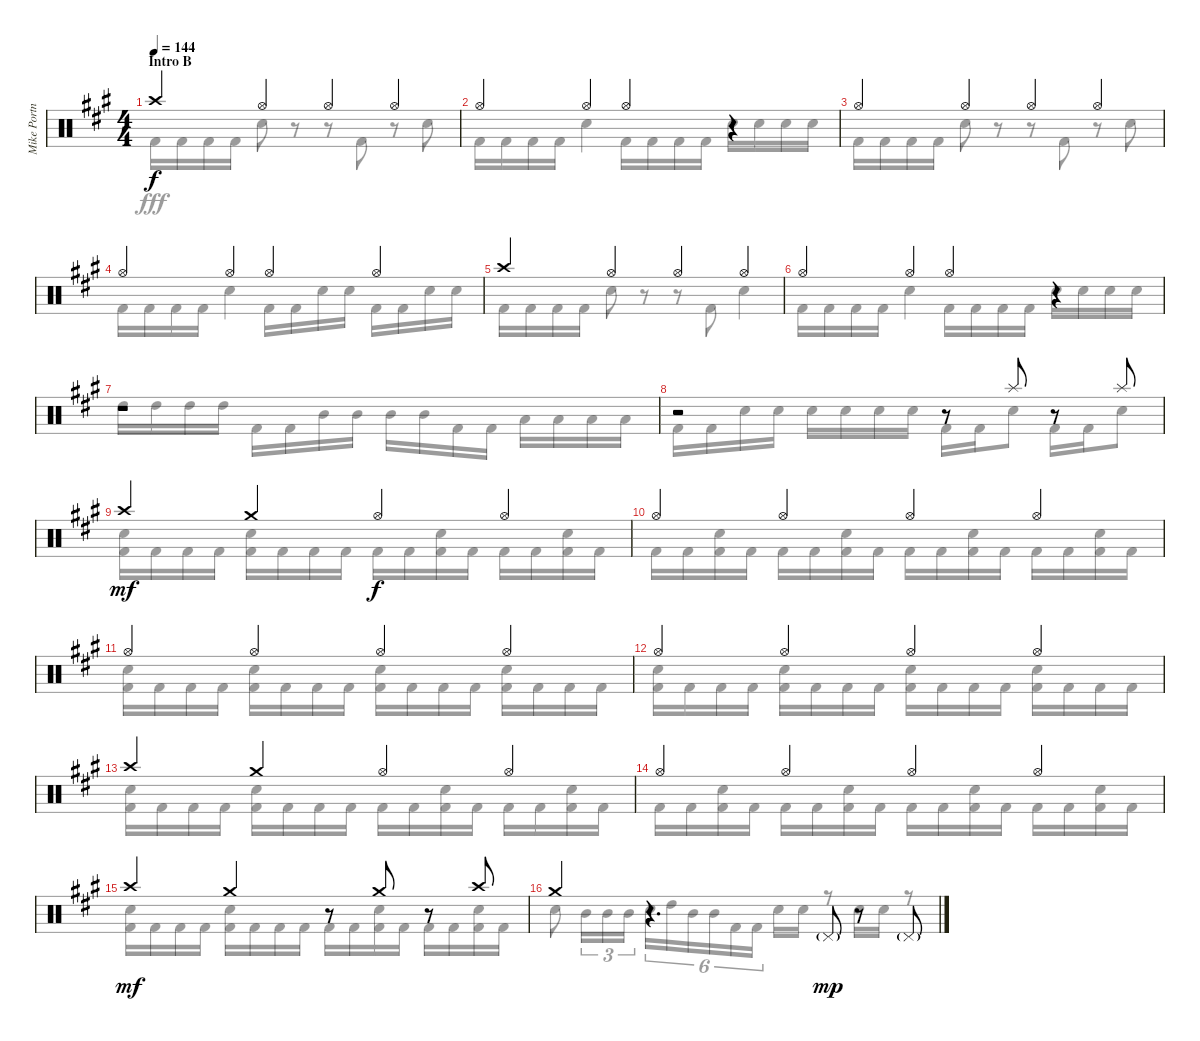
\track ("Mike Portnoy Drums" "Mike Portn") {instrument percussion}
\staff {score}
\articulation defaults
\voice
\ts (4 4)
\section ("" "Intro B")
\tempo 144
\clef neutral
\ks f#minor "Crash high (hit)".4{dy f} "Hi-Hat (open)".4 "Hi-Hat (open)".4 "Hi-Hat (open)".4
|
"Hi-Hat (open)".4 "Hi-Hat (open)".4 "Hi-Hat (open)".4 r.4 |
"Hi-Hat (open)".4 "Hi-Hat (open)".4 "Hi-Hat (open)".4 "Hi-Hat (open)".4 |
"Hi-Hat (open)".4 "Hi-Hat (open)".4 "Hi-Hat (open)".4 "Hi-Hat (open)".4 |
"Crash high (hit)".4 "Hi-Hat (open)".4 "Hi-Hat (open)".4 "Hi-Hat (open)".4 |
"Hi-Hat (open)".4 "Hi-Hat (open)".4 "Hi-Hat (open)".4 r.4 |
r.1 |
r.2 r.8 "Splash (hit)".8 r.8 "Splash (hit)".8 |
"Crash high (hit)".4{dy mf} "Crash medium (hit)".4 "Hi-Hat (open)".4{dy f} "Hi-Hat (open)".4 |
"Hi-Hat (open)".4 "Hi-Hat (open)".4 "Hi-Hat (open)".4 "Hi-Hat (open)".4 |
"Hi-Hat (open)".4 "Hi-Hat (open)".4 "Hi-Hat (open)".4 "Hi-Hat (open)".4 |
"Hi-Hat (open)".4 "Hi-Hat (open)".4 "Hi-Hat (open)".4 "Hi-Hat (open)".4 |
"Crash high (hit)".4 "Crash medium (hit)".4 "Hi-Hat (open)".4 "Hi-Hat (open)".4 |
"Hi-Hat (open)".4 "Hi-Hat (open)".4 "Hi-Hat (open)".4 "Hi-Hat (open)".4 |
"Crash high (hit)".4{dy mf} "Crash medium (hit)".4 r.8 "Crash medium (hit)".8 r.8 "Crash high (hit)".8 |
"Crash medium (hit)".4 r.4{d} "Pedal Hi-Hat (hit)"{g}.8{dy mp} r.8 "Pedal Hi-Hat (hit)"{g}.8
\voice
\clef neutral
\ottava regular
\simile none
\ks f#minor "Kick (hit) 2".16{dy fff} "Kick (hit) 2".16 "Kick (hit) 2".16 "Kick (hit) 2".16 "Snare (hit) 2".8
r.8 r.8 "Kick (hit) 2".8 r.8 "Snare (hit) 2".8 |
"Kick (hit) 2".16 "Kick (hit) 2".16 "Kick (hit) 2".16 "Kick (hit) 2".16 "Snare (hit) 2".4 "Kick (hit) 2".16 "Kick (hit) 2".16 "Kick (hit) 2".16 "Kick (hit) 2".16 "Snare (hit) 2".16 "Snare (hit) 2".16 "Snare (hit) 2".16 "Snare (hit) 2".16 |
"Kick (hit) 2".16 "Kick (hit) 2".16 "Kick (hit) 2".16 "Kick (hit) 2".16 "Snare (hit) 2".8 r.8 r.8 "Kick (hit) 2".8 r.8 "Snare (hit) 2".8 |
"Kick (hit) 2".16 "Kick (hit) 2".16 "Kick (hit) 2".16 "Kick (hit) 2".16 "Snare (hit) 2".4 "Kick (hit) 2".16 "Kick (hit) 2".16 "Snare (hit) 2".16 "Snare (hit) 2".16 "Kick (hit) 2".16 "Kick (hit) 2".16 "Snare (hit) 2".16 "Snare (hit) 2".16 |
"Kick (hit) 2".16 "Kick (hit) 2".16 "Kick (hit) 2".16 "Kick (hit) 2".16 "Snare (hit) 2".8 r.8 r.8 "Kick (hit) 2".8 "Snare (hit) 2".4 |
"Kick (hit) 2".16 "Kick (hit) 2".16 "Kick (hit) 2".16 "Kick (hit) 2".16 "Snare (hit) 2".4 "Kick (hit) 2".16 "Kick (hit) 2".16 "Kick (hit) 2".16 "Kick (hit) 2".16 "Snare (hit) 2".16 "Snare (hit) 2".16 "Snare (hit) 2".16 "Snare (hit) 2".16 |
"High Tom (hit)".16 "High Tom (hit)".16 "High Tom (hit)".16 "High Tom (hit)".16 "Kick (hit) 2".16 "Kick (hit) 2".16 "Mid Tom (hit)".16 "Mid Tom (hit)".16 "Mid Tom (hit)".16 "Mid Tom (hit)".16 "Kick (hit) 2".16 "Kick (hit) 2".16 "Low Tom (hit)".16 "Low Tom (hit)".16 "Low Tom (hit)".16 "Low Tom (hit)".16 |
"Kick (hit) 2".16 "Kick (hit) 2".16 "Snare (hit) 2".16 "Snare (hit) 2".16 "Snare (hit) 2".16 "Snare (hit) 2".16 "Snare (hit) 2".16 "Snare (hit) 2".16 "Kick (hit) 2".16 "Kick (hit) 2".16 "Snare (hit) 2".8 "Kick (hit) 2".16 "Kick (hit) 2".16 "Snare (hit) 2".8 |
("Snare (hit) 2" "Kick (hit) 2").16 "Kick (hit) 2".16 "Kick (hit) 2".16 "Kick (hit) 2".16 ("Snare (hit) 2" "Kick (hit) 2").16 "Kick (hit) 2".16 "Kick (hit) 2".16 "Kick (hit) 2".16 "Kick (hit) 2".16 "Kick (hit) 2".16 ("Snare (hit) 2" "Kick (hit) 2").16 "Kick (hit) 2".16 "Kick (hit) 2".16 "Kick (hit) 2".16 ("Snare (hit) 2" "Kick (hit) 2").16 "Kick (hit) 2".16 |
"Kick (hit) 2".16 "Kick (hit) 2".16 ("Snare (hit) 2" "Kick (hit) 2").16 "Kick (hit) 2".16 "Kick (hit) 2".16 "Kick (hit) 2".16 ("Snare (hit) 2" "Kick (hit) 2").16 "Kick (hit) 2".16 "Kick (hit) 2".16 "Kick (hit) 2".16 ("Snare (hit) 2" "Kick (hit) 2").16 "Kick (hit) 2".16 "Kick (hit) 2".16 "Kick (hit) 2".16 ("Snare (hit) 2" "Kick (hit) 2").16 "Kick (hit) 2".16 |
("Snare (hit) 2" "Kick (hit) 2").16 "Kick (hit) 2".16 "Kick (hit) 2".16 "Kick (hit) 2".16 ("Snare (hit) 2" "Kick (hit) 2").16 "Kick (hit) 2".16 "Kick (hit) 2".16 "Kick (hit) 2".16 ("Snare (hit) 2" "Kick (hit) 2").16 "Kick (hit) 2".16 "Kick (hit) 2".16 "Kick (hit) 2".16 ("Snare (hit) 2" "Kick (hit) 2").16 "Kick (hit) 2".16 "Kick (hit) 2".16 "Kick (hit) 2".16 |
("Snare (hit) 2" "Kick (hit) 2").16 "Kick (hit) 2".16 "Kick (hit) 2".16 "Kick (hit) 2".16 ("Snare (hit) 2" "Kick (hit) 2").16 "Kick (hit) 2".16 "Kick (hit) 2".16 "Kick (hit) 2".16 ("Snare (hit) 2" "Kick (hit) 2").16 "Kick (hit) 2".16 "Kick (hit) 2".16 "Kick (hit) 2".16 ("Snare (hit) 2" "Kick (hit) 2").16 "Kick (hit) 2".16 "Kick (hit) 2".16 "Kick (hit) 2".16 |
("Snare (hit) 2" "Kick (hit) 2").16 "Kick (hit) 2".16 "Kick (hit) 2".16 "Kick (hit) 2".16 ("Snare (hit) 2" "Kick (hit) 2").16 "Kick (hit) 2".16 "Kick (hit) 2".16 "Kick (hit) 2".16 "Kick (hit) 2".16 "Kick (hit) 2".16 ("Snare (hit) 2" "Kick (hit) 2").16 "Kick (hit) 2".16 "Kick (hit) 2".16 "Kick (hit) 2".16 ("Snare (hit) 2" "Kick (hit) 2").16 "Kick (hit) 2".16 |
"Kick (hit) 2".16 "Kick (hit) 2".16 ("Snare (hit) 2" "Kick (hit) 2").16 "Kick (hit) 2".16 "Kick (hit) 2".16 "Kick (hit) 2".16 ("Snare (hit) 2" "Kick (hit) 2").16 "Kick (hit) 2".16 "Kick (hit) 2".16 "Kick (hit) 2".16 ("Snare (hit) 2" "Kick (hit) 2").16 "Kick (hit) 2".16 "Kick (hit) 2".16 "Kick (hit) 2".16 ("Snare (hit) 2" "Kick (hit) 2").16 "Kick (hit) 2".16 |
("Snare (hit) 2" "Kick (hit) 2").16 "Kick (hit) 2".16 "Kick (hit) 2".16 "Kick (hit) 2".16 ("Snare (hit) 2" "Kick (hit) 2").16 "Kick (hit) 2".16 "Kick (hit) 2".16 "Kick (hit) 2".16 "Kick (hit) 2".16 "Kick (hit) 2".16 ("Snare (hit) 2" "Kick (hit) 2").16 "Kick (hit) 2".16 "Kick (hit) 2".16 "Kick (hit) 2".16 ("Snare (hit) 2" "Kick (hit) 2").16 "Kick (hit) 2".16 |
"Snare (hit) 2".8 "Mid Tom (hit)".16{tu (3 2)} "Mid Tom (hit)".16{tu (3 2)} "Mid Tom (hit)".16{tu (3 2)} "Snare (hit) 2".16{tu (6 4)} "High Tom (hit)".16{tu (6 4)} "Mid Tom (hit)".16{tu (6 4)} "Mid Tom (hit)".16{tu (6 4)} "Kick (hit) 2".16{tu (6 4)} "Kick (hit) 2".16{tu (6 4)} "Snare (hit) 2".16 "Snare (hit) 2".16 r.8 "Snare (hit) 2".16 "Snare (hit) 2".16 r.8
